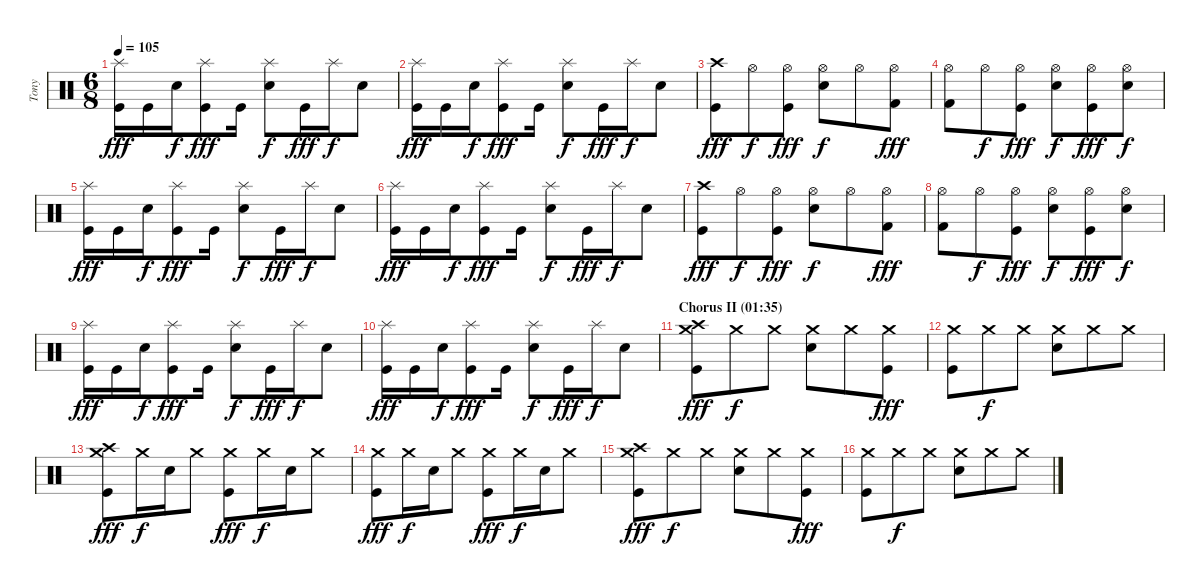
\track ("Tony" "Tony") {instrument percussion}
\staff {score}
\articulation defaults
\ts (6 8)
\tempo 105
\clef neutral
\ks c
("Splash (hit)" "Kick (hit)").16{dy fff} "Kick (hit)".16 "Snare (hit) 2".16{dy f} ("Splash (hit)" "Kick (hit)").8{dy fff} "Kick (hit)".16 ("Splash (hit)" "Snare (hit) 2").8{dy f} "Kick (hit)".16{dy fff} "Splash (hit)".16{dy f} "Snare (hit) 2".8 |
("Splash (hit)" "Kick (hit)").16{dy fff} "Kick (hit)".16 "Snare (hit) 2".16{dy f} ("Splash (hit)" "Kick (hit)").8{dy fff} "Kick (hit)".16 ("Splash (hit)" "Snare (hit) 2").8{dy f} "Kick (hit)".16{dy fff} "Splash (hit)".16{dy f} "Snare (hit) 2".8 |
("Crash high (hit)" "Kick (hit)").8{dy fff} "Hi-Hat (open)".8{dy f} ("Hi-Hat (open)" "Kick (hit)").8{dy fff} ("Hi-Hat (open)" "Snare (hit) 2").8{dy f} "Hi-Hat (open)".8 ("Hi-Hat (open)" "Kick (hit) 2").8{dy fff} |
("Hi-Hat (open)" "Kick (hit) 2").8 "Hi-Hat (open)".8{dy f} ("Hi-Hat (open)" "Kick (hit)").8{dy fff} ("Hi-Hat (open)" "Snare (hit) 2").8{dy f} ("Hi-Hat (open)" "Kick (hit)").8{dy fff} ("Hi-Hat (open)" "Snare (hit) 2").8{dy f} |
("Splash (hit)" "Kick (hit)").16{dy fff} "Kick (hit)".16 "Snare (hit) 2".16{dy f} ("Splash (hit)" "Kick (hit)").8{dy fff} "Kick (hit)".16 ("Splash (hit)" "Snare (hit) 2").8{dy f} "Kick (hit)".16{dy fff} "Splash (hit)".16{dy f} "Snare (hit) 2".8 |
("Splash (hit)" "Kick (hit)").16{dy fff} "Kick (hit)".16 "Snare (hit) 2".16{dy f} ("Splash (hit)" "Kick (hit)").8{dy fff} "Kick (hit)".16 ("Splash (hit)" "Snare (hit) 2").8{dy f} "Kick (hit)".16{dy fff} "Splash (hit)".16{dy f} "Snare (hit) 2".8 |
("Crash high (hit)" "Kick (hit)").8{dy fff} "Hi-Hat (open)".8{dy f} ("Hi-Hat (open)" "Kick (hit)").8{dy fff} ("Hi-Hat (open)" "Snare (hit) 2").8{dy f} "Hi-Hat (open)".8 ("Hi-Hat (open)" "Kick (hit) 2").8{dy fff} |
("Hi-Hat (open)" "Kick (hit) 2").8 "Hi-Hat (open)".8{dy f} ("Hi-Hat (open)" "Kick (hit)").8{dy fff} ("Hi-Hat (open)" "Snare (hit) 2").8{dy f} ("Hi-Hat (open)" "Kick (hit)").8{dy fff} ("Hi-Hat (open)" "Snare (hit) 2").8{dy f} |
("Splash (hit)" "Kick (hit)").16{dy fff} "Kick (hit)".16 "Snare (hit) 2".16{dy f} ("Splash (hit)" "Kick (hit)").8{dy fff} "Kick (hit)".16 ("Splash (hit)" "Snare (hit) 2").8{dy f} "Kick (hit)".16{dy fff} "Splash (hit)".16{dy f} "Snare (hit) 2".8 |
("Splash (hit)" "Kick (hit)").16{dy fff} "Kick (hit)".16 "Snare (hit) 2".16{dy f} ("Splash (hit)" "Kick (hit)").8{dy fff} "Kick (hit)".16 ("Splash (hit)" "Snare (hit) 2").8{dy f} "Kick (hit)".16{dy fff} "Splash (hit)".16{dy f} "Snare (hit) 2".8 |
\section ("" "Chorus II (01:35)")
("Crash medium (hit)" "Crash high (hit)" "Kick (hit)").8{dy fff} "Crash medium (hit)".8{dy f} "Crash medium (hit)".8 ("Crash medium (hit)" "Snare (hit) 2").8 "Crash medium (hit)".8 ("Crash medium (hit)" "Kick (hit)").8{dy fff} |
("Crash medium (hit)" "Kick (hit)").8 "Crash medium (hit)".8{dy f} "Crash medium (hit)".8 ("Crash medium (hit)" "Snare (hit) 2").8 "Crash medium (hit)".8 "Crash medium (hit)".8 |
("Crash medium (hit)" "Crash high (hit)" "Kick (hit)").8{dy fff} "Crash medium (hit)".16{dy f} "Snare (hit) 2".16 "Crash medium (hit)".8 ("Crash medium (hit)" "Kick (hit)").8{dy fff} "Crash medium (hit)".16{dy f} "Snare (hit) 2".16 "Crash medium (hit)".8 |
("Crash medium (hit)" "Kick (hit)").8{dy fff} "Crash medium (hit)".16{dy f} "Snare (hit) 2".16 "Crash medium (hit)".8 ("Crash medium (hit)" "Kick (hit)").8{dy fff} "Crash medium (hit)".16{dy f} "Snare (hit) 2".16 "Crash medium (hit)".8 |
("Crash medium (hit)" "Crash high (hit)" "Kick (hit)").8{dy fff} "Crash medium (hit)".8{dy f} "Crash medium (hit)".8 ("Crash medium (hit)" "Snare (hit) 2").8 "Crash medium (hit)".8 ("Crash medium (hit)" "Kick (hit)").8{dy fff} |
("Crash medium (hit)" "Kick (hit)").8 "Crash medium (hit)".8{dy f} "Crash medium (hit)".8 ("Crash medium (hit)" "Snare (hit) 2").8 "Crash medium (hit)".8 "Crash medium (hit)".8
